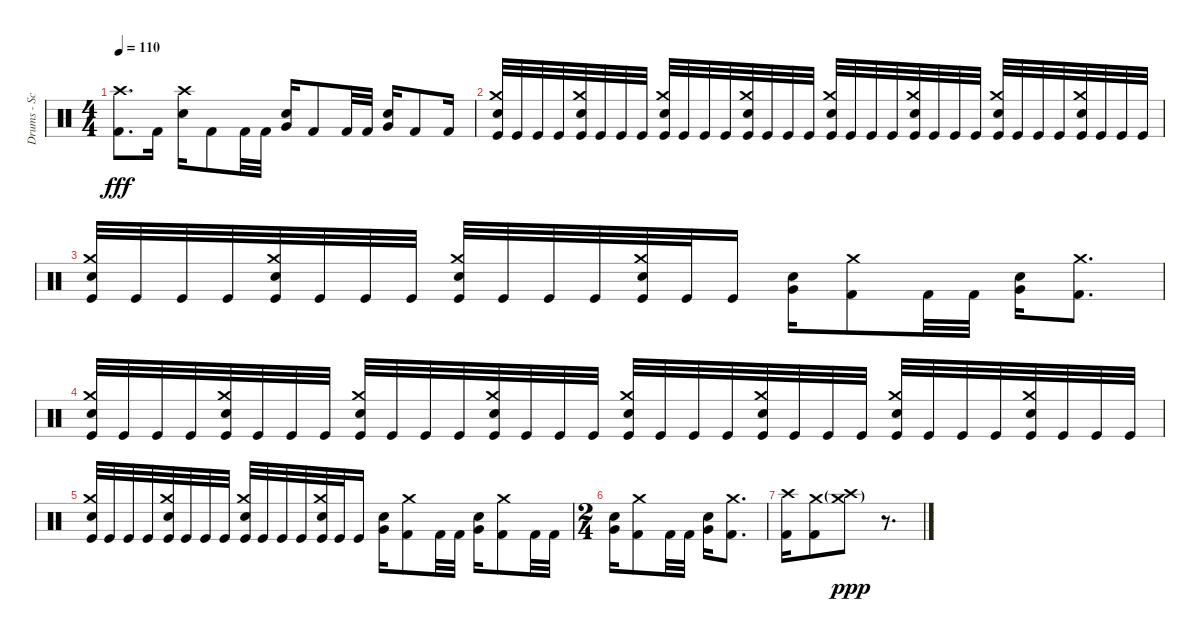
\track ("Drums - Scott" "Drums - Sc") {instrument percussion}
\staff {score}
\articulation defaults
\ts (4 4)
\tempo 110
\clef neutral
\ks c
("Crash high (hit)" "Kick (hit) 2").8{d dy fff} "Kick (hit) 2".16 ("Crash high (hit)" "Electric Snare (hit)").16 "Kick (hit) 2".8 "Kick (hit) 2".32 "Kick (hit) 2".32 ("Electric Snare (hit)" "Very Low Tom (hit)").16 "Kick (hit) 2".8 "Kick (hit) 2".32 "Kick (hit) 2".32 ("Electric Snare (hit)" "Very Low Tom (hit)").16 "Kick (hit) 2".8 "Kick (hit) 2".16 |
("Crash medium (hit)" "Electric Snare (hit)" "Kick (hit)").32 "Kick (hit)".32 "Kick (hit)".32 "Kick (hit)".32 ("Crash medium (hit)" "Electric Snare (hit)" "Kick (hit)").32 "Kick (hit)".32 "Kick (hit)".32 "Kick (hit)".32 ("Crash medium (hit)" "Electric Snare (hit)" "Kick (hit)").32 "Kick (hit)".32 "Kick (hit)".32 "Kick (hit)".32 ("Crash medium (hit)" "Electric Snare (hit)" "Kick (hit)").32 "Kick (hit)".32 "Kick (hit)".32 "Kick (hit)".32 ("Crash medium (hit)" "Electric Snare (hit)" "Kick (hit)").32 "Kick (hit)".32 "Kick (hit)".32 "Kick (hit)".32 ("Crash medium (hit)" "Electric Snare (hit)" "Kick (hit)").32 "Kick (hit)".32 "Kick (hit)".32 "Kick (hit)".32 ("Crash medium (hit)" "Electric Snare (hit)" "Kick (hit)").32 "Kick (hit)".32 "Kick (hit)".32 "Kick (hit)".32 ("Crash medium (hit)" "Electric Snare (hit)" "Kick (hit)").32 "Kick (hit)".32 "Kick (hit)".32 "Kick (hit)".32 |
("Crash medium (hit)" "Electric Snare (hit)" "Kick (hit)").32 "Kick (hit)".32 "Kick (hit)".32 "Kick (hit)".32 ("Crash medium (hit)" "Electric Snare (hit)" "Kick (hit)").32 "Kick (hit)".32 "Kick (hit)".32 "Kick (hit)".32 ("Crash medium (hit)" "Electric Snare (hit)" "Kick (hit)").32 "Kick (hit)".32 "Kick (hit)".32 "Kick (hit)".32 ("Crash medium (hit)" "Electric Snare (hit)" "Kick (hit)").32 "Kick (hit)".32 "Kick (hit)".16 ("Electric Snare (hit)" "Very Low Tom (hit)").16 ("Crash medium (hit)" "Kick (hit) 2").8 "Kick (hit) 2".32 "Kick (hit) 2".32 ("Electric Snare (hit)" "Very Low Tom (hit)").16 ("Crash medium (hit)" "Kick (hit) 2").8{d} |
("Crash medium (hit)" "Electric Snare (hit)" "Kick (hit)").32 "Kick (hit)".32 "Kick (hit)".32 "Kick (hit)".32 ("Crash medium (hit)" "Electric Snare (hit)" "Kick (hit)").32 "Kick (hit)".32 "Kick (hit)".32 "Kick (hit)".32 ("Crash medium (hit)" "Electric Snare (hit)" "Kick (hit)").32 "Kick (hit)".32 "Kick (hit)".32 "Kick (hit)".32 ("Crash medium (hit)" "Electric Snare (hit)" "Kick (hit)").32 "Kick (hit)".32 "Kick (hit)".32 "Kick (hit)".32 ("Crash medium (hit)" "Electric Snare (hit)" "Kick (hit)").32 "Kick (hit)".32 "Kick (hit)".32 "Kick (hit)".32 ("Crash medium (hit)" "Electric Snare (hit)" "Kick (hit)").32 "Kick (hit)".32 "Kick (hit)".32 "Kick (hit)".32 ("Crash medium (hit)" "Electric Snare (hit)" "Kick (hit)").32 "Kick (hit)".32 "Kick (hit)".32 "Kick (hit)".32 ("Crash medium (hit)" "Electric Snare (hit)" "Kick (hit)").32 "Kick (hit)".32 "Kick (hit)".32 "Kick (hit)".32 |
("Crash medium (hit)" "Electric Snare (hit)" "Kick (hit)").32 "Kick (hit)".32 "Kick (hit)".32 "Kick (hit)".32 ("Crash medium (hit)" "Electric Snare (hit)" "Kick (hit)").32 "Kick (hit)".32 "Kick (hit)".32 "Kick (hit)".32 ("Crash medium (hit)" "Electric Snare (hit)" "Kick (hit)").32 "Kick (hit)".32 "Kick (hit)".32 "Kick (hit)".32 ("Crash medium (hit)" "Electric Snare (hit)" "Kick (hit)").32 "Kick (hit)".32 "Kick (hit)".16 ("Electric Snare (hit)" "Very Low Tom (hit)").16 ("Crash medium (hit)" "Kick (hit) 2").8 "Kick (hit) 2".32 "Kick (hit) 2".32 ("Electric Snare (hit)" "Very Low Tom (hit)").16 ("Crash medium (hit)" "Kick (hit) 2").8 "Kick (hit) 2".32 "Kick (hit) 2".32 |
\ts (2 4)
("Electric Snare (hit)" "Very Low Tom (hit)").16 ("Crash medium (hit)" "Kick (hit) 2").8 "Kick (hit) 2".32 "Kick (hit) 2".32 ("Electric Snare (hit)" "Very Low Tom (hit)").16 ("Crash medium (hit)" "Kick (hit) 2").8{d} |
("Crash high (hit)" "Kick (hit) 2").16 ("Crash medium (hit)" "Kick (hit) 2").8 ("Crash medium (hit)"{g} "Crash high (hit)"{g}).8{dy ppp} r.8{d}
